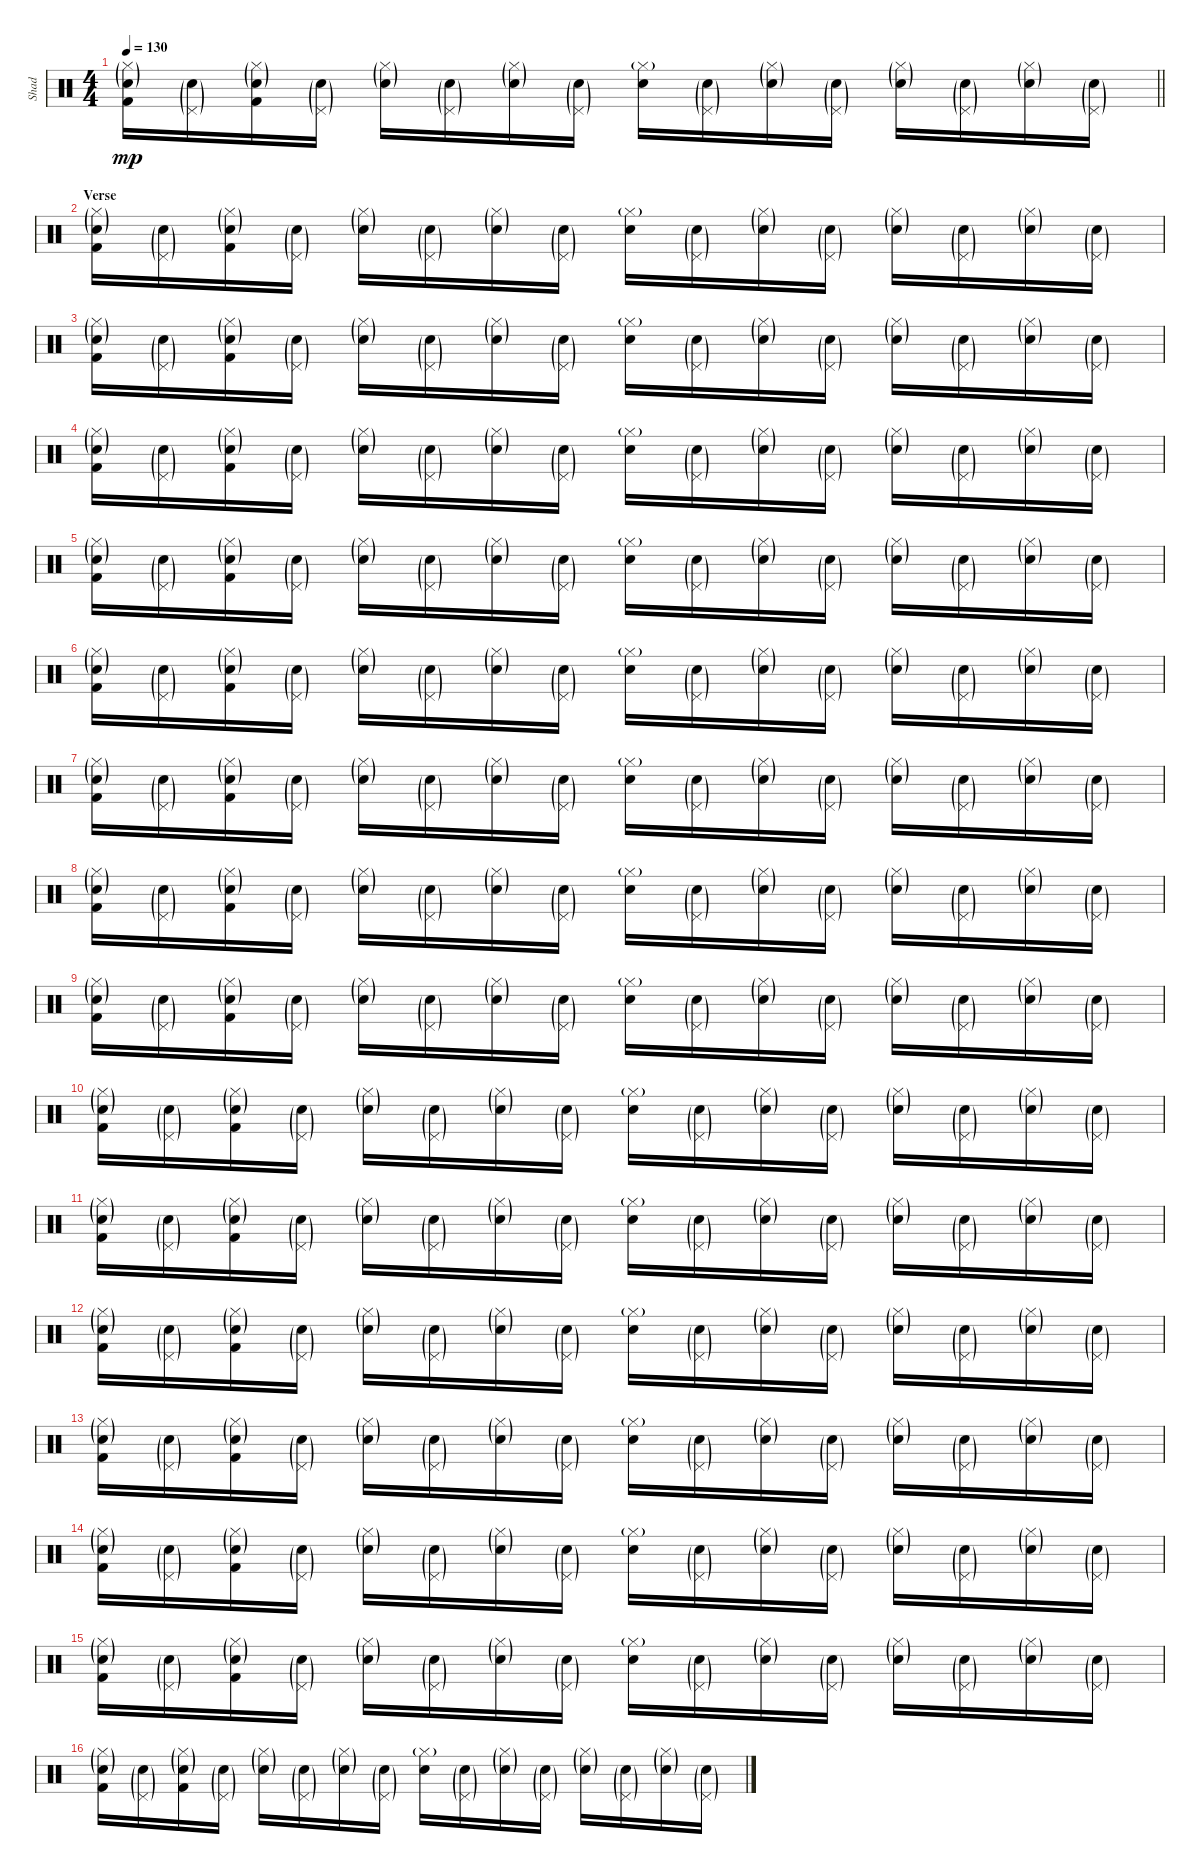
\track ("Shad" "Shad") {instrument percussion}
\staff {score}
\articulation defaults
\ts (4 4)
\tempo 130
\clef neutral
\barLineRight lightlight
\ks c
("Hi-Hat (closed)"{g} "Electric Snare (hit)"{g} "Kick (hit) 2").16{dy mp} ("Pedal Hi-Hat (hit)"{g} "Electric Snare (hit)"{g}).16 ("Hi-Hat (closed)"{g} "Electric Snare (hit)"{g} "Kick (hit) 2").16 ("Pedal Hi-Hat (hit)"{g} "Electric Snare (hit)"{g}).16 ("Hi-Hat (closed)"{g} "Electric Snare (hit)"{g}).16 ("Pedal Hi-Hat (hit)"{g} "Electric Snare (hit)"{g}).16 ("Hi-Hat (closed)"{g} "Electric Snare (hit)"{g}).16 ("Pedal Hi-Hat (hit)"{g} "Electric Snare (hit)"{g}).16 ("Hi-Hat (closed)"{g} "Electric Snare (hit)").16 ("Pedal Hi-Hat (hit)"{g} "Electric Snare (hit)"{g}).16 ("Hi-Hat (closed)"{g} "Electric Snare (hit)"{g}).16 ("Pedal Hi-Hat (hit)"{g} "Electric Snare (hit)"{g}).16 ("Hi-Hat (closed)"{g} "Electric Snare (hit)"{g}).16 ("Pedal Hi-Hat (hit)"{g} "Electric Snare (hit)"{g}).16 ("Hi-Hat (closed)"{g} "Electric Snare (hit)"{g}).16 ("Pedal Hi-Hat (hit)"{g} "Electric Snare (hit)"{g}).16 |
\section ("" "Verse")
("Hi-Hat (closed)"{g} "Electric Snare (hit)"{g} "Kick (hit) 2").16 ("Pedal Hi-Hat (hit)"{g} "Electric Snare (hit)"{g}).16 ("Hi-Hat (closed)"{g} "Electric Snare (hit)"{g} "Kick (hit) 2").16 ("Pedal Hi-Hat (hit)"{g} "Electric Snare (hit)"{g}).16 ("Hi-Hat (closed)"{g} "Electric Snare (hit)"{g}).16 ("Pedal Hi-Hat (hit)"{g} "Electric Snare (hit)"{g}).16 ("Hi-Hat (closed)"{g} "Electric Snare (hit)"{g}).16 ("Pedal Hi-Hat (hit)"{g} "Electric Snare (hit)"{g}).16 ("Hi-Hat (closed)"{g} "Electric Snare (hit)").16 ("Pedal Hi-Hat (hit)"{g} "Electric Snare (hit)"{g}).16 ("Hi-Hat (closed)"{g} "Electric Snare (hit)"{g}).16 ("Pedal Hi-Hat (hit)"{g} "Electric Snare (hit)"{g}).16 ("Hi-Hat (closed)"{g} "Electric Snare (hit)"{g}).16 ("Pedal Hi-Hat (hit)"{g} "Electric Snare (hit)"{g}).16 ("Hi-Hat (closed)"{g} "Electric Snare (hit)"{g}).16 ("Pedal Hi-Hat (hit)"{g} "Electric Snare (hit)"{g}).16 |
("Hi-Hat (closed)"{g} "Electric Snare (hit)"{g} "Kick (hit) 2").16 ("Pedal Hi-Hat (hit)"{g} "Electric Snare (hit)"{g}).16 ("Hi-Hat (closed)"{g} "Electric Snare (hit)"{g} "Kick (hit) 2").16 ("Pedal Hi-Hat (hit)"{g} "Electric Snare (hit)"{g}).16 ("Hi-Hat (closed)"{g} "Electric Snare (hit)"{g}).16 ("Pedal Hi-Hat (hit)"{g} "Electric Snare (hit)"{g}).16 ("Hi-Hat (closed)"{g} "Electric Snare (hit)"{g}).16 ("Pedal Hi-Hat (hit)"{g} "Electric Snare (hit)"{g}).16 ("Hi-Hat (closed)"{g} "Electric Snare (hit)").16 ("Pedal Hi-Hat (hit)"{g} "Electric Snare (hit)"{g}).16 ("Hi-Hat (closed)"{g} "Electric Snare (hit)"{g}).16 ("Pedal Hi-Hat (hit)"{g} "Electric Snare (hit)"{g}).16 ("Hi-Hat (closed)"{g} "Electric Snare (hit)"{g}).16 ("Pedal Hi-Hat (hit)"{g} "Electric Snare (hit)"{g}).16 ("Hi-Hat (closed)"{g} "Electric Snare (hit)"{g}).16 ("Pedal Hi-Hat (hit)"{g} "Electric Snare (hit)"{g}).16 |
("Hi-Hat (closed)"{g} "Electric Snare (hit)"{g} "Kick (hit) 2").16 ("Pedal Hi-Hat (hit)"{g} "Electric Snare (hit)"{g}).16 ("Hi-Hat (closed)"{g} "Electric Snare (hit)"{g} "Kick (hit) 2").16 ("Pedal Hi-Hat (hit)"{g} "Electric Snare (hit)"{g}).16 ("Hi-Hat (closed)"{g} "Electric Snare (hit)"{g}).16 ("Pedal Hi-Hat (hit)"{g} "Electric Snare (hit)"{g}).16 ("Hi-Hat (closed)"{g} "Electric Snare (hit)"{g}).16 ("Pedal Hi-Hat (hit)"{g} "Electric Snare (hit)"{g}).16 ("Hi-Hat (closed)"{g} "Electric Snare (hit)").16 ("Pedal Hi-Hat (hit)"{g} "Electric Snare (hit)"{g}).16 ("Hi-Hat (closed)"{g} "Electric Snare (hit)"{g}).16 ("Pedal Hi-Hat (hit)"{g} "Electric Snare (hit)"{g}).16 ("Hi-Hat (closed)"{g} "Electric Snare (hit)"{g}).16 ("Pedal Hi-Hat (hit)"{g} "Electric Snare (hit)"{g}).16 ("Hi-Hat (closed)"{g} "Electric Snare (hit)"{g}).16 ("Pedal Hi-Hat (hit)"{g} "Electric Snare (hit)"{g}).16 |
("Hi-Hat (closed)"{g} "Electric Snare (hit)"{g} "Kick (hit) 2").16 ("Pedal Hi-Hat (hit)"{g} "Electric Snare (hit)"{g}).16 ("Hi-Hat (closed)"{g} "Electric Snare (hit)"{g} "Kick (hit) 2").16 ("Pedal Hi-Hat (hit)"{g} "Electric Snare (hit)"{g}).16 ("Hi-Hat (closed)"{g} "Electric Snare (hit)"{g}).16 ("Pedal Hi-Hat (hit)"{g} "Electric Snare (hit)"{g}).16 ("Hi-Hat (closed)"{g} "Electric Snare (hit)"{g}).16 ("Pedal Hi-Hat (hit)"{g} "Electric Snare (hit)"{g}).16 ("Hi-Hat (closed)"{g} "Electric Snare (hit)").16 ("Pedal Hi-Hat (hit)"{g} "Electric Snare (hit)"{g}).16 ("Hi-Hat (closed)"{g} "Electric Snare (hit)"{g}).16 ("Pedal Hi-Hat (hit)"{g} "Electric Snare (hit)"{g}).16 ("Hi-Hat (closed)"{g} "Electric Snare (hit)"{g}).16 ("Pedal Hi-Hat (hit)"{g} "Electric Snare (hit)"{g}).16 ("Hi-Hat (closed)"{g} "Electric Snare (hit)"{g}).16 ("Pedal Hi-Hat (hit)"{g} "Electric Snare (hit)"{g}).16 |
("Hi-Hat (closed)"{g} "Electric Snare (hit)"{g} "Kick (hit) 2").16 ("Pedal Hi-Hat (hit)"{g} "Electric Snare (hit)"{g}).16 ("Hi-Hat (closed)"{g} "Electric Snare (hit)"{g} "Kick (hit) 2").16 ("Pedal Hi-Hat (hit)"{g} "Electric Snare (hit)"{g}).16 ("Hi-Hat (closed)"{g} "Electric Snare (hit)"{g}).16 ("Pedal Hi-Hat (hit)"{g} "Electric Snare (hit)"{g}).16 ("Hi-Hat (closed)"{g} "Electric Snare (hit)"{g}).16 ("Pedal Hi-Hat (hit)"{g} "Electric Snare (hit)"{g}).16 ("Hi-Hat (closed)"{g} "Electric Snare (hit)").16 ("Pedal Hi-Hat (hit)"{g} "Electric Snare (hit)"{g}).16 ("Hi-Hat (closed)"{g} "Electric Snare (hit)"{g}).16 ("Pedal Hi-Hat (hit)"{g} "Electric Snare (hit)"{g}).16 ("Hi-Hat (closed)"{g} "Electric Snare (hit)"{g}).16 ("Pedal Hi-Hat (hit)"{g} "Electric Snare (hit)"{g}).16 ("Hi-Hat (closed)"{g} "Electric Snare (hit)"{g}).16 ("Pedal Hi-Hat (hit)"{g} "Electric Snare (hit)"{g}).16 |
("Hi-Hat (closed)"{g} "Electric Snare (hit)"{g} "Kick (hit) 2").16 ("Pedal Hi-Hat (hit)"{g} "Electric Snare (hit)"{g}).16 ("Hi-Hat (closed)"{g} "Electric Snare (hit)"{g} "Kick (hit) 2").16 ("Pedal Hi-Hat (hit)"{g} "Electric Snare (hit)"{g}).16 ("Hi-Hat (closed)"{g} "Electric Snare (hit)"{g}).16 ("Pedal Hi-Hat (hit)"{g} "Electric Snare (hit)"{g}).16 ("Hi-Hat (closed)"{g} "Electric Snare (hit)"{g}).16 ("Pedal Hi-Hat (hit)"{g} "Electric Snare (hit)"{g}).16 ("Hi-Hat (closed)"{g} "Electric Snare (hit)").16 ("Pedal Hi-Hat (hit)"{g} "Electric Snare (hit)"{g}).16 ("Hi-Hat (closed)"{g} "Electric Snare (hit)"{g}).16 ("Pedal Hi-Hat (hit)"{g} "Electric Snare (hit)"{g}).16 ("Hi-Hat (closed)"{g} "Electric Snare (hit)"{g}).16 ("Pedal Hi-Hat (hit)"{g} "Electric Snare (hit)"{g}).16 ("Hi-Hat (closed)"{g} "Electric Snare (hit)"{g}).16 ("Pedal Hi-Hat (hit)"{g} "Electric Snare (hit)"{g}).16 |
("Hi-Hat (closed)"{g} "Electric Snare (hit)"{g} "Kick (hit) 2").16 ("Pedal Hi-Hat (hit)"{g} "Electric Snare (hit)"{g}).16 ("Hi-Hat (closed)"{g} "Electric Snare (hit)"{g} "Kick (hit) 2").16 ("Pedal Hi-Hat (hit)"{g} "Electric Snare (hit)"{g}).16 ("Hi-Hat (closed)"{g} "Electric Snare (hit)"{g}).16 ("Pedal Hi-Hat (hit)"{g} "Electric Snare (hit)"{g}).16 ("Hi-Hat (closed)"{g} "Electric Snare (hit)"{g}).16 ("Pedal Hi-Hat (hit)"{g} "Electric Snare (hit)"{g}).16 ("Hi-Hat (closed)"{g} "Electric Snare (hit)").16 ("Pedal Hi-Hat (hit)"{g} "Electric Snare (hit)"{g}).16 ("Hi-Hat (closed)"{g} "Electric Snare (hit)"{g}).16 ("Pedal Hi-Hat (hit)"{g} "Electric Snare (hit)"{g}).16 ("Hi-Hat (closed)"{g} "Electric Snare (hit)"{g}).16 ("Pedal Hi-Hat (hit)"{g} "Electric Snare (hit)"{g}).16 ("Hi-Hat (closed)"{g} "Electric Snare (hit)"{g}).16 ("Pedal Hi-Hat (hit)"{g} "Electric Snare (hit)"{g}).16 |
("Hi-Hat (closed)"{g} "Electric Snare (hit)"{g} "Kick (hit) 2").16 ("Pedal Hi-Hat (hit)"{g} "Electric Snare (hit)"{g}).16 ("Hi-Hat (closed)"{g} "Electric Snare (hit)"{g} "Kick (hit) 2").16 ("Pedal Hi-Hat (hit)"{g} "Electric Snare (hit)"{g}).16 ("Hi-Hat (closed)"{g} "Electric Snare (hit)"{g}).16 ("Pedal Hi-Hat (hit)"{g} "Electric Snare (hit)"{g}).16 ("Hi-Hat (closed)"{g} "Electric Snare (hit)"{g}).16 ("Pedal Hi-Hat (hit)"{g} "Electric Snare (hit)"{g}).16 ("Hi-Hat (closed)"{g} "Electric Snare (hit)").16 ("Pedal Hi-Hat (hit)"{g} "Electric Snare (hit)"{g}).16 ("Hi-Hat (closed)"{g} "Electric Snare (hit)"{g}).16 ("Pedal Hi-Hat (hit)"{g} "Electric Snare (hit)"{g}).16 ("Hi-Hat (closed)"{g} "Electric Snare (hit)"{g}).16 ("Pedal Hi-Hat (hit)"{g} "Electric Snare (hit)"{g}).16 ("Hi-Hat (closed)"{g} "Electric Snare (hit)"{g}).16 ("Pedal Hi-Hat (hit)"{g} "Electric Snare (hit)"{g}).16 |
("Hi-Hat (closed)"{g} "Electric Snare (hit)"{g} "Kick (hit) 2").16 ("Pedal Hi-Hat (hit)"{g} "Electric Snare (hit)"{g}).16 ("Hi-Hat (closed)"{g} "Electric Snare (hit)"{g} "Kick (hit) 2").16 ("Pedal Hi-Hat (hit)"{g} "Electric Snare (hit)"{g}).16 ("Hi-Hat (closed)"{g} "Electric Snare (hit)"{g}).16 ("Pedal Hi-Hat (hit)"{g} "Electric Snare (hit)"{g}).16 ("Hi-Hat (closed)"{g} "Electric Snare (hit)"{g}).16 ("Pedal Hi-Hat (hit)"{g} "Electric Snare (hit)"{g}).16 ("Hi-Hat (closed)"{g} "Electric Snare (hit)").16 ("Pedal Hi-Hat (hit)"{g} "Electric Snare (hit)"{g}).16 ("Hi-Hat (closed)"{g} "Electric Snare (hit)"{g}).16 ("Pedal Hi-Hat (hit)"{g} "Electric Snare (hit)"{g}).16 ("Hi-Hat (closed)"{g} "Electric Snare (hit)"{g}).16 ("Pedal Hi-Hat (hit)"{g} "Electric Snare (hit)"{g}).16 ("Hi-Hat (closed)"{g} "Electric Snare (hit)"{g}).16 ("Pedal Hi-Hat (hit)"{g} "Electric Snare (hit)"{g}).16 |
("Hi-Hat (closed)"{g} "Electric Snare (hit)"{g} "Kick (hit) 2").16 ("Pedal Hi-Hat (hit)"{g} "Electric Snare (hit)"{g}).16 ("Hi-Hat (closed)"{g} "Electric Snare (hit)"{g} "Kick (hit) 2").16 ("Pedal Hi-Hat (hit)"{g} "Electric Snare (hit)"{g}).16 ("Hi-Hat (closed)"{g} "Electric Snare (hit)"{g}).16 ("Pedal Hi-Hat (hit)"{g} "Electric Snare (hit)"{g}).16 ("Hi-Hat (closed)"{g} "Electric Snare (hit)"{g}).16 ("Pedal Hi-Hat (hit)"{g} "Electric Snare (hit)"{g}).16 ("Hi-Hat (closed)"{g} "Electric Snare (hit)").16 ("Pedal Hi-Hat (hit)"{g} "Electric Snare (hit)"{g}).16 ("Hi-Hat (closed)"{g} "Electric Snare (hit)"{g}).16 ("Pedal Hi-Hat (hit)"{g} "Electric Snare (hit)"{g}).16 ("Hi-Hat (closed)"{g} "Electric Snare (hit)"{g}).16 ("Pedal Hi-Hat (hit)"{g} "Electric Snare (hit)"{g}).16 ("Hi-Hat (closed)"{g} "Electric Snare (hit)"{g}).16 ("Pedal Hi-Hat (hit)"{g} "Electric Snare (hit)"{g}).16 |
("Hi-Hat (closed)"{g} "Electric Snare (hit)"{g} "Kick (hit) 2").16 ("Pedal Hi-Hat (hit)"{g} "Electric Snare (hit)"{g}).16 ("Hi-Hat (closed)"{g} "Electric Snare (hit)"{g} "Kick (hit) 2").16 ("Pedal Hi-Hat (hit)"{g} "Electric Snare (hit)"{g}).16 ("Hi-Hat (closed)"{g} "Electric Snare (hit)"{g}).16 ("Pedal Hi-Hat (hit)"{g} "Electric Snare (hit)"{g}).16 ("Hi-Hat (closed)"{g} "Electric Snare (hit)"{g}).16 ("Pedal Hi-Hat (hit)"{g} "Electric Snare (hit)"{g}).16 ("Hi-Hat (closed)"{g} "Electric Snare (hit)").16 ("Pedal Hi-Hat (hit)"{g} "Electric Snare (hit)"{g}).16 ("Hi-Hat (closed)"{g} "Electric Snare (hit)"{g}).16 ("Pedal Hi-Hat (hit)"{g} "Electric Snare (hit)"{g}).16 ("Hi-Hat (closed)"{g} "Electric Snare (hit)"{g}).16 ("Pedal Hi-Hat (hit)"{g} "Electric Snare (hit)"{g}).16 ("Hi-Hat (closed)"{g} "Electric Snare (hit)"{g}).16 ("Pedal Hi-Hat (hit)"{g} "Electric Snare (hit)"{g}).16 |
("Hi-Hat (closed)"{g} "Electric Snare (hit)"{g} "Kick (hit) 2").16 ("Pedal Hi-Hat (hit)"{g} "Electric Snare (hit)"{g}).16 ("Hi-Hat (closed)"{g} "Electric Snare (hit)"{g} "Kick (hit) 2").16 ("Pedal Hi-Hat (hit)"{g} "Electric Snare (hit)"{g}).16 ("Hi-Hat (closed)"{g} "Electric Snare (hit)"{g}).16 ("Pedal Hi-Hat (hit)"{g} "Electric Snare (hit)"{g}).16 ("Hi-Hat (closed)"{g} "Electric Snare (hit)"{g}).16 ("Pedal Hi-Hat (hit)"{g} "Electric Snare (hit)"{g}).16 ("Hi-Hat (closed)"{g} "Electric Snare (hit)").16 ("Pedal Hi-Hat (hit)"{g} "Electric Snare (hit)"{g}).16 ("Hi-Hat (closed)"{g} "Electric Snare (hit)"{g}).16 ("Pedal Hi-Hat (hit)"{g} "Electric Snare (hit)"{g}).16 ("Hi-Hat (closed)"{g} "Electric Snare (hit)"{g}).16 ("Pedal Hi-Hat (hit)"{g} "Electric Snare (hit)"{g}).16 ("Hi-Hat (closed)"{g} "Electric Snare (hit)"{g}).16 ("Pedal Hi-Hat (hit)"{g} "Electric Snare (hit)"{g}).16 |
("Hi-Hat (closed)"{g} "Electric Snare (hit)"{g} "Kick (hit) 2").16 ("Pedal Hi-Hat (hit)"{g} "Electric Snare (hit)"{g}).16 ("Hi-Hat (closed)"{g} "Electric Snare (hit)"{g} "Kick (hit) 2").16 ("Pedal Hi-Hat (hit)"{g} "Electric Snare (hit)"{g}).16 ("Hi-Hat (closed)"{g} "Electric Snare (hit)"{g}).16 ("Pedal Hi-Hat (hit)"{g} "Electric Snare (hit)"{g}).16 ("Hi-Hat (closed)"{g} "Electric Snare (hit)"{g}).16 ("Pedal Hi-Hat (hit)"{g} "Electric Snare (hit)"{g}).16 ("Hi-Hat (closed)"{g} "Electric Snare (hit)").16 ("Pedal Hi-Hat (hit)"{g} "Electric Snare (hit)"{g}).16 ("Hi-Hat (closed)"{g} "Electric Snare (hit)"{g}).16 ("Pedal Hi-Hat (hit)"{g} "Electric Snare (hit)"{g}).16 ("Hi-Hat (closed)"{g} "Electric Snare (hit)"{g}).16 ("Pedal Hi-Hat (hit)"{g} "Electric Snare (hit)"{g}).16 ("Hi-Hat (closed)"{g} "Electric Snare (hit)"{g}).16 ("Pedal Hi-Hat (hit)"{g} "Electric Snare (hit)"{g}).16 |
("Hi-Hat (closed)"{g} "Electric Snare (hit)"{g} "Kick (hit) 2").16 ("Pedal Hi-Hat (hit)"{g} "Electric Snare (hit)"{g}).16 ("Hi-Hat (closed)"{g} "Electric Snare (hit)"{g} "Kick (hit) 2").16 ("Pedal Hi-Hat (hit)"{g} "Electric Snare (hit)"{g}).16 ("Hi-Hat (closed)"{g} "Electric Snare (hit)"{g}).16 ("Pedal Hi-Hat (hit)"{g} "Electric Snare (hit)"{g}).16 ("Hi-Hat (closed)"{g} "Electric Snare (hit)"{g}).16 ("Pedal Hi-Hat (hit)"{g} "Electric Snare (hit)"{g}).16 ("Hi-Hat (closed)"{g} "Electric Snare (hit)").16 ("Pedal Hi-Hat (hit)"{g} "Electric Snare (hit)"{g}).16 ("Hi-Hat (closed)"{g} "Electric Snare (hit)"{g}).16 ("Pedal Hi-Hat (hit)"{g} "Electric Snare (hit)"{g}).16 ("Hi-Hat (closed)"{g} "Electric Snare (hit)"{g}).16 ("Pedal Hi-Hat (hit)"{g} "Electric Snare (hit)"{g}).16 ("Hi-Hat (closed)"{g} "Electric Snare (hit)"{g}).16 ("Pedal Hi-Hat (hit)"{g} "Electric Snare (hit)"{g}).16 |
("Hi-Hat (closed)"{g} "Electric Snare (hit)"{g} "Kick (hit) 2").16 ("Pedal Hi-Hat (hit)"{g} "Electric Snare (hit)"{g}).16 ("Hi-Hat (closed)"{g} "Electric Snare (hit)"{g} "Kick (hit) 2").16 ("Pedal Hi-Hat (hit)"{g} "Electric Snare (hit)"{g}).16 ("Hi-Hat (closed)"{g} "Electric Snare (hit)"{g}).16 ("Pedal Hi-Hat (hit)"{g} "Electric Snare (hit)"{g}).16 ("Hi-Hat (closed)"{g} "Electric Snare (hit)"{g}).16 ("Pedal Hi-Hat (hit)"{g} "Electric Snare (hit)"{g}).16 ("Hi-Hat (closed)"{g} "Electric Snare (hit)").16 ("Pedal Hi-Hat (hit)"{g} "Electric Snare (hit)"{g}).16 ("Hi-Hat (closed)"{g} "Electric Snare (hit)"{g}).16 ("Pedal Hi-Hat (hit)"{g} "Electric Snare (hit)"{g}).16 ("Hi-Hat (closed)"{g} "Electric Snare (hit)"{g}).16 ("Pedal Hi-Hat (hit)"{g} "Electric Snare (hit)"{g}).16 ("Hi-Hat (closed)"{g} "Electric Snare (hit)"{g}).16 ("Pedal Hi-Hat (hit)"{g} "Electric Snare (hit)"{g}).16
